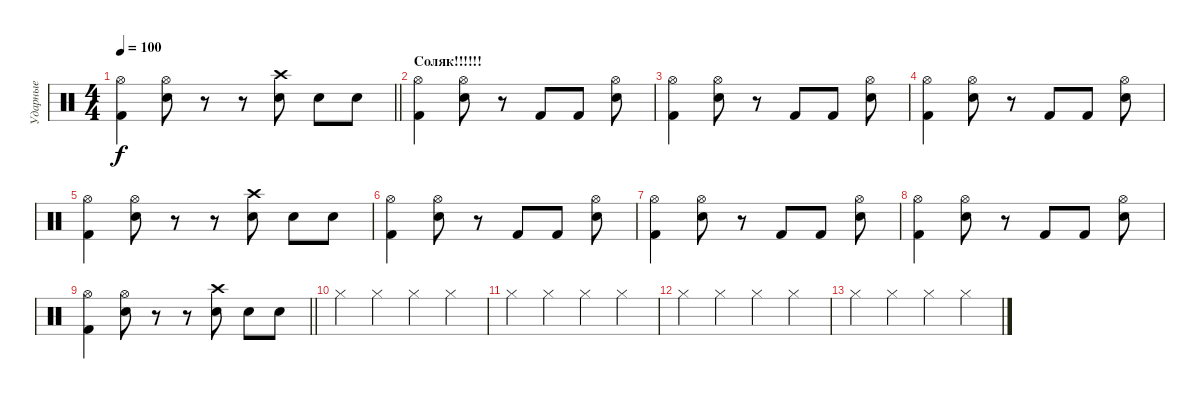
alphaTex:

\track ("Ударные" "Ударные") {instrument percussion}
\staff {score}
\articulation defaults
\ts (4 4)
\tempo 100
\clef neutral
\barLineRight lightlight
\ks c
("Kick (hit) 2" "Hi-Hat (open)").4{dy f} ("Snare (hit) 2" "Hi-Hat (open)").8 r.8 r.8 ("Snare (hit) 2" "Crash high (hit)").8 "Snare (hit) 2".8 "Snare (hit) 2".8 |
\section ("" "Соляк!!!!!!")
("Kick (hit) 2" "Hi-Hat (open)").4 ("Snare (hit) 2" "Hi-Hat (open)").8 r.8 "Kick (hit) 2".8 "Kick (hit) 2".8 ("Snare (hit) 2" "Hi-Hat (open)").8 |
("Kick (hit) 2" "Hi-Hat (open)").4 ("Snare (hit) 2" "Hi-Hat (open)").8 r.8 "Kick (hit) 2".8 "Kick (hit) 2".8 ("Snare (hit) 2" "Hi-Hat (open)").8 |
("Kick (hit) 2" "Hi-Hat (open)").4 ("Snare (hit) 2" "Hi-Hat (open)").8 r.8 "Kick (hit) 2".8 "Kick (hit) 2".8 ("Snare (hit) 2" "Hi-Hat (open)").8 |
("Kick (hit) 2" "Hi-Hat (open)").4 ("Snare (hit) 2" "Hi-Hat (open)").8 r.8 r.8 ("Snare (hit) 2" "Crash high (hit)").8 "Snare (hit) 2".8 "Snare (hit) 2".8 |
("Kick (hit) 2" "Hi-Hat (open)").4 ("Snare (hit) 2" "Hi-Hat (open)").8 r.8 "Kick (hit) 2".8 "Kick (hit) 2".8 ("Snare (hit) 2" "Hi-Hat (open)").8 |
("Kick (hit) 2" "Hi-Hat (open)").4 ("Snare (hit) 2" "Hi-Hat (open)").8 r.8 "Kick (hit) 2".8 "Kick (hit) 2".8 ("Snare (hit) 2" "Hi-Hat (open)").8 |
("Kick (hit) 2" "Hi-Hat (open)").4 ("Snare (hit) 2" "Hi-Hat (open)").8 r.8 "Kick (hit) 2".8 "Kick (hit) 2".8 ("Snare (hit) 2" "Hi-Hat (open)").8 |
\barLineRight lightlight
("Kick (hit) 2" "Hi-Hat (open)").4 ("Snare (hit) 2" "Hi-Hat (open)").8 r.8 r.8 ("Snare (hit) 2" "Crash high (hit)").8 "Snare (hit) 2".8 "Snare (hit) 2".8 |
"Hi-Hat (closed)".4 "Hi-Hat (closed)".4 "Hi-Hat (closed)".4 "Hi-Hat (closed)".4 |
"Hi-Hat (closed)".4 "Hi-Hat (closed)".4 "Hi-Hat (closed)".4 "Hi-Hat (closed)".4 |
"Hi-Hat (closed)".4 "Hi-Hat (closed)".4 "Hi-Hat (closed)".4 "Hi-Hat (closed)".4 |
"Hi-Hat (closed)".4 "Hi-Hat (closed)".4 "Hi-Hat (closed)".4 "Hi-Hat (closed)".4
